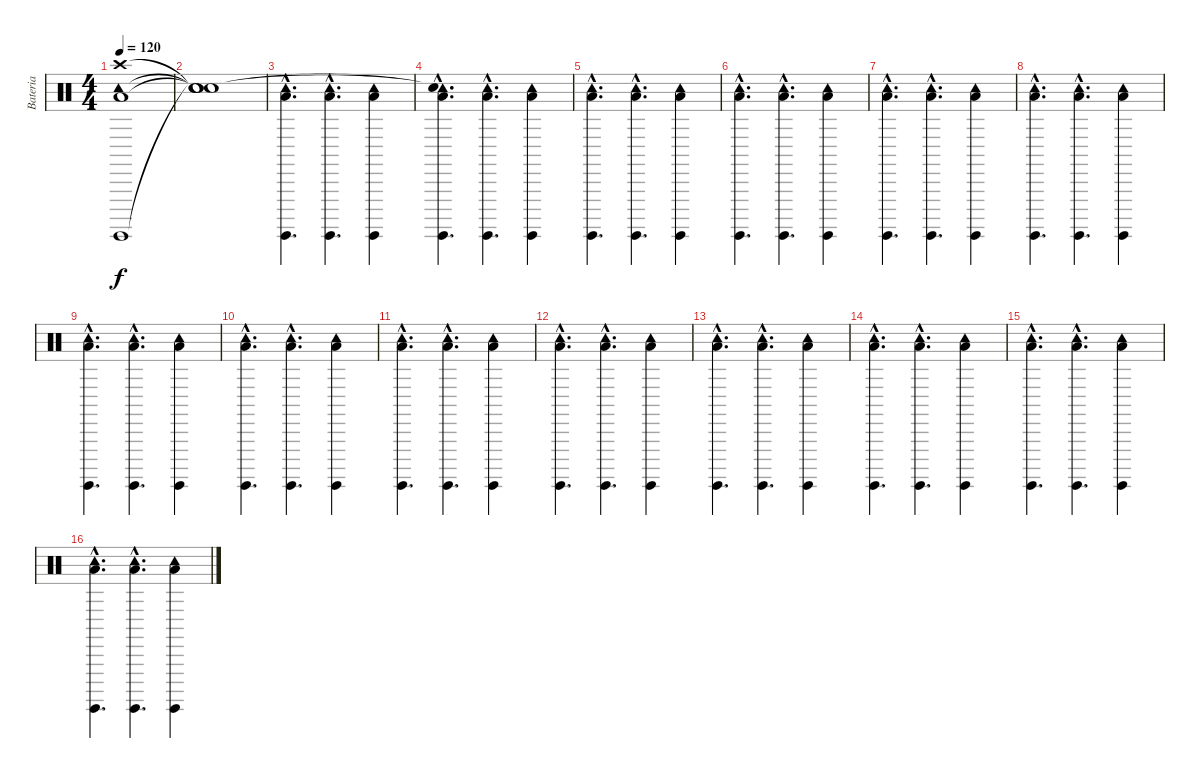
\track ("Bateria" "Bateria") {instrument percussion}
\staff {score}
\articulation defaults
\ts (4 4)
\tempo 120
\clef neutral
\ks c
("Low Tom (hit)" "Surdo (hit)" "Tambourine (hit)" "Crash high (hit)").1{dy f} |
("Snare (hit)"{t} "Snare (hit)"{t} "Snare (hit)"{t} "Snare (hit)"{t}).1 |
("Low Tom (hit)"{hac} "Surdo (hit)"{hac} "Tambourine (hit)"{hac}).4{d} ("Low Tom (hit)"{hac} "Surdo (hit)"{hac} "Tambourine (hit)"{hac}).4{d} ("Low Tom (hit)" "Surdo (hit)" "Tambourine (hit)").4 |
("Low Tom (hit)"{hac} "Surdo (hit)"{hac} "Tambourine (hit)"{hac} "Snare (hit)"{hac t}).4{d} ("Low Tom (hit)"{hac} "Surdo (hit)"{hac} "Tambourine (hit)"{hac}).4{d} ("Low Tom (hit)" "Surdo (hit)" "Tambourine (hit)").4 |
("Low Tom (hit)"{hac} "Surdo (hit)"{hac} "Tambourine (hit)"{hac}).4{d} ("Low Tom (hit)"{hac} "Surdo (hit)"{hac} "Tambourine (hit)"{hac}).4{d} ("Low Tom (hit)" "Surdo (hit)" "Tambourine (hit)").4 |
("Low Tom (hit)"{hac} "Surdo (hit)"{hac} "Tambourine (hit)"{hac}).4{d} ("Low Tom (hit)"{hac} "Surdo (hit)"{hac} "Tambourine (hit)"{hac}).4{d} ("Low Tom (hit)" "Surdo (hit)" "Tambourine (hit)").4 |
("Low Tom (hit)"{hac} "Surdo (hit)"{hac} "Tambourine (hit)"{hac}).4{d} ("Low Tom (hit)"{hac} "Surdo (hit)"{hac} "Tambourine (hit)"{hac}).4{d} ("Low Tom (hit)" "Surdo (hit)" "Tambourine (hit)").4 |
("Low Tom (hit)"{hac} "Surdo (hit)"{hac} "Tambourine (hit)"{hac}).4{d} ("Low Tom (hit)"{hac} "Surdo (hit)"{hac} "Tambourine (hit)"{hac}).4{d} ("Low Tom (hit)" "Surdo (hit)" "Tambourine (hit)").4 |
("Low Tom (hit)"{hac} "Surdo (hit)"{hac} "Tambourine (hit)"{hac}).4{d} ("Low Tom (hit)"{hac} "Surdo (hit)"{hac} "Tambourine (hit)"{hac}).4{d} ("Low Tom (hit)" "Surdo (hit)" "Tambourine (hit)").4 |
("Low Tom (hit)"{hac} "Surdo (hit)"{hac} "Tambourine (hit)"{hac}).4{d} ("Low Tom (hit)"{hac} "Surdo (hit)"{hac} "Tambourine (hit)"{hac}).4{d} ("Low Tom (hit)" "Surdo (hit)" "Tambourine (hit)").4 |
("Low Tom (hit)"{hac} "Surdo (hit)"{hac} "Tambourine (hit)"{hac}).4{d} ("Low Tom (hit)"{hac} "Surdo (hit)"{hac} "Tambourine (hit)"{hac}).4{d} ("Low Tom (hit)" "Surdo (hit)" "Tambourine (hit)").4 |
("Low Tom (hit)"{hac} "Surdo (hit)"{hac} "Tambourine (hit)"{hac}).4{d} ("Low Tom (hit)"{hac} "Surdo (hit)"{hac} "Tambourine (hit)"{hac}).4{d} ("Low Tom (hit)" "Surdo (hit)" "Tambourine (hit)").4 |
("Low Tom (hit)"{hac} "Surdo (hit)"{hac} "Tambourine (hit)"{hac}).4{d} ("Low Tom (hit)"{hac} "Surdo (hit)"{hac} "Tambourine (hit)"{hac}).4{d} ("Low Tom (hit)" "Surdo (hit)" "Tambourine (hit)").4 |
("Low Tom (hit)"{hac} "Surdo (hit)"{hac} "Tambourine (hit)"{hac}).4{d} ("Low Tom (hit)"{hac} "Surdo (hit)"{hac} "Tambourine (hit)"{hac}).4{d} ("Low Tom (hit)" "Surdo (hit)" "Tambourine (hit)").4 |
("Low Tom (hit)"{hac} "Surdo (hit)"{hac} "Tambourine (hit)"{hac}).4{d} ("Low Tom (hit)"{hac} "Surdo (hit)"{hac} "Tambourine (hit)"{hac}).4{d} ("Low Tom (hit)" "Surdo (hit)" "Tambourine (hit)").4 |
("Low Tom (hit)"{hac} "Surdo (hit)"{hac} "Tambourine (hit)"{hac}).4{d} ("Low Tom (hit)"{hac} "Surdo (hit)"{hac} "Tambourine (hit)"{hac}).4{d} ("Low Tom (hit)" "Surdo (hit)" "Tambourine (hit)").4
